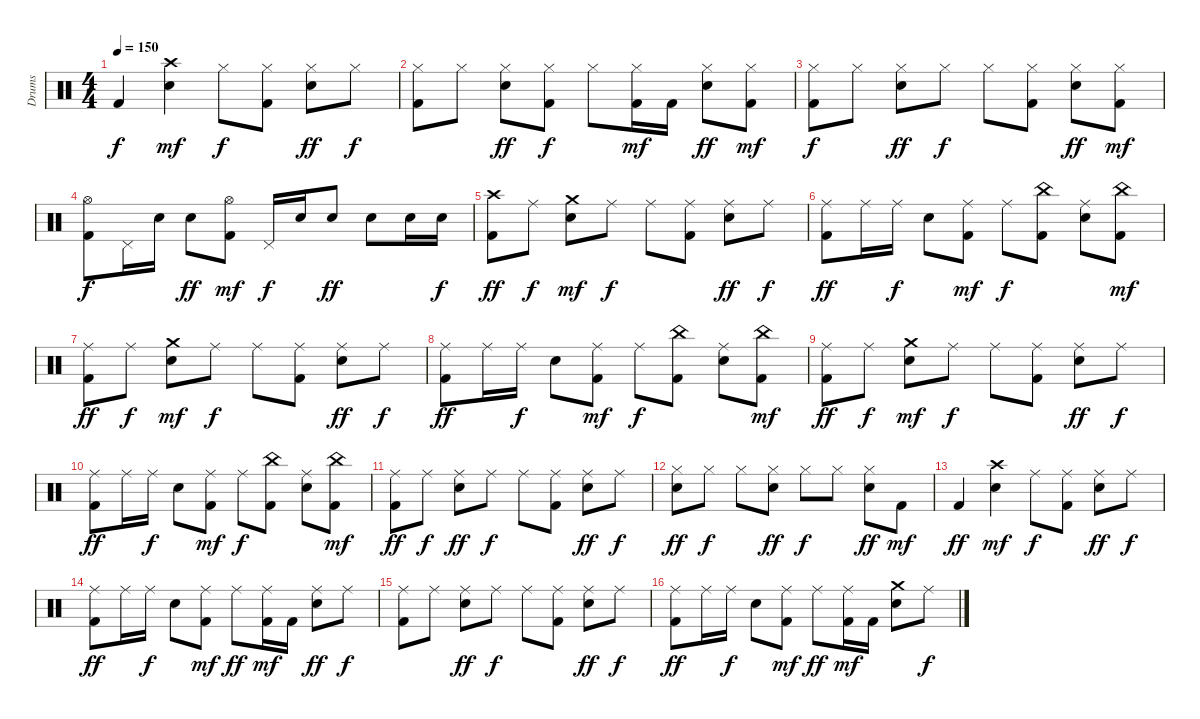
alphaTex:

\track ("Drums" "Drums") {instrument percussion}
\staff {score}
\articulation defaults
\ts (4 4)
\tempo 150
\clef neutral
\ks c "Kick (hit) 2".4{dy f}
("Crash high (hit)" "Snare (hit) 2").4{dy mf} "Hi-Hat (closed)".8{dy f} ("Hi-Hat (closed)" "Kick (hit) 2").8 ("Hi-Hat (closed)" "Snare (hit) 2").8{dy ff} "Hi-Hat (closed)".8{dy f} |
("Hi-Hat (closed)" "Kick (hit) 2").8 "Hi-Hat (closed)".8 ("Hi-Hat (closed)" "Snare (hit) 2").8{dy ff} ("Hi-Hat (closed)" "Kick (hit) 2").8{dy f} "Hi-Hat (closed)".8 ("Hi-Hat (closed)" "Kick (hit) 2").16{dy mf} "Kick (hit) 2".16 ("Hi-Hat (closed)" "Snare (hit) 2").8{dy ff} ("Hi-Hat (closed)" "Kick (hit) 2").8{dy mf} |
("Kick (hit) 2" "Hi-Hat (closed)").8{dy f} "Hi-Hat (closed)".8 ("Snare (hit) 2" "Hi-Hat (closed)").8{dy ff} "Hi-Hat (closed)".8{dy f} "Hi-Hat (closed)".8 ("Kick (hit) 2" "Hi-Hat (closed)").8 ("Snare (hit) 2" "Hi-Hat (closed)").8{dy ff} ("Kick (hit) 2" "Hi-Hat (closed)").8{dy mf} |
("Hi-Hat (open)" "Kick (hit) 2").8{dy f} "Pedal Hi-Hat (hit)".16 "Snare (hit) 2".16 "Snare (hit) 2".8{dy ff} ("Hi-Hat (open)" "Kick (hit) 2").8{dy mf} "Pedal Hi-Hat (hit)".16{dy f} "Snare (hit) 2".16 "Snare (hit) 2".8{dy ff} "Snare (hit) 2".8 "Snare (hit) 2".16 "Snare (hit) 2".16{dy f} |
("Crash high (hit)" "Kick (hit) 2").8{dy ff} "Ride (middle)".8{dy f} ("Crash medium (hit)" "Snare (hit) 2").8{dy mf} "Ride (middle)".8{dy f} "Ride (middle)".8 ("Ride (middle)" "Kick (hit) 2").8 ("Ride (middle)" "Snare (hit) 2").8{dy ff} "Ride (middle)".8{dy f} |
("Ride (middle)" "Kick (hit) 2").8{dy ff} "Ride (middle)".16 "Ride (middle)".16{dy f} "Snare (hit) 2".8 ("Ride (middle)" "Kick (hit) 2").8{dy mf} "Ride (middle)".8{dy f} ("China (hit)" "Kick (hit) 2").8 ("Ride (middle)" "Snare (hit) 2").8 ("China (hit)" "Kick (hit) 2").8{dy mf} |
("Ride (middle)" "Kick (hit) 2").8{dy ff} "Ride (middle)".8{dy f} ("Crash medium (hit)" "Snare (hit) 2").8{dy mf} "Ride (middle)".8{dy f} "Ride (middle)".8 ("Ride (middle)" "Kick (hit) 2").8 ("Ride (middle)" "Snare (hit) 2").8{dy ff} "Ride (middle)".8{dy f} |
("Ride (middle)" "Kick (hit) 2").8{dy ff} "Ride (middle)".16 "Ride (middle)".16{dy f} "Snare (hit) 2".8 ("Ride (middle)" "Kick (hit) 2").8{dy mf} "Ride (middle)".8{dy f} ("China (hit)" "Kick (hit) 2").8 ("Ride (middle)" "Snare (hit) 2").8 ("China (hit)" "Kick (hit) 2").8{dy mf} |
("Ride (middle)" "Kick (hit) 2").8{dy ff} "Ride (middle)".8{dy f} ("Crash medium (hit)" "Snare (hit) 2").8{dy mf} "Ride (middle)".8{dy f} "Ride (middle)".8 ("Ride (middle)" "Kick (hit) 2").8 ("Ride (middle)" "Snare (hit) 2").8{dy ff} "Ride (middle)".8{dy f} |
("Ride (middle)" "Kick (hit) 2").8{dy ff} "Ride (middle)".16 "Ride (middle)".16{dy f} "Snare (hit) 2".8 ("Ride (middle)" "Kick (hit) 2").8{dy mf} "Ride (middle)".8{dy f} ("China (hit)" "Kick (hit) 2").8 ("Ride (middle)" "Snare (hit) 2").8 ("China (hit)" "Kick (hit) 2").8{dy mf} |
("Ride (middle)" "Kick (hit) 2").8{dy ff} "Ride (middle)".8{dy f} ("Ride (middle)" "Snare (hit) 2").8{dy ff} "Ride (middle)".8{dy f} "Ride (middle)".8 ("Ride (middle)" "Kick (hit) 2").8 ("Ride (middle)" "Snare (hit) 2").8{dy ff} "Ride (middle)".8{dy f} |
("Hi-Hat (closed)" "Snare (hit) 2").8{dy ff} "Hi-Hat (closed)".8{dy f} "Hi-Hat (closed)".8 ("Hi-Hat (closed)" "Snare (hit) 2").8{dy ff} "Hi-Hat (closed)".8{dy f} "Hi-Hat (closed)".8 ("Hi-Hat (closed)" "Snare (hit) 2").8{dy ff} "Kick (hit) 2".8{dy mf} |
"Kick (hit) 2".4{dy ff} ("Crash high (hit)" "Snare (hit) 2").4{dy mf} "Ride (middle)".8{dy f} ("Ride (middle)" "Kick (hit) 2").8 ("Ride (middle)" "Snare (hit) 2").8{dy ff} "Ride (middle)".8{dy f} |
("Ride (middle)" "Kick (hit) 2").8{dy ff} "Ride (middle)".16 "Ride (middle)".16{dy f} "Snare (hit) 2".8 ("Ride (middle)" "Kick (hit) 2").8{dy mf} "Ride (middle)".8{dy ff} ("Ride (middle)" "Kick (hit) 2").16{dy mf} "Kick (hit) 2".16 ("Ride (middle)" "Snare (hit) 2").8{dy ff} "Ride (middle)".8{dy f} |
("Ride (middle)" "Kick (hit) 2").8 "Ride (middle)".8 ("Ride (middle)" "Snare (hit) 2").8{dy ff} "Ride (middle)".8{dy f} "Ride (middle)".8 ("Ride (middle)" "Kick (hit) 2").8 ("Ride (middle)" "Snare (hit) 2").8{dy ff} "Ride (middle)".8{dy f} |
("Ride (middle)" "Kick (hit) 2").8{dy ff} "Ride (middle)".16 "Ride (middle)".16{dy f} "Snare (hit) 2".8 ("Ride (middle)" "Kick (hit) 2").8{dy mf} "Ride (middle)".8{dy ff} ("Ride (middle)" "Kick (hit) 2").16{dy mf} "Kick (hit) 2".16 ("Crash medium (hit)" "Snare (hit) 2").8 "Ride (middle)".8{dy f}
